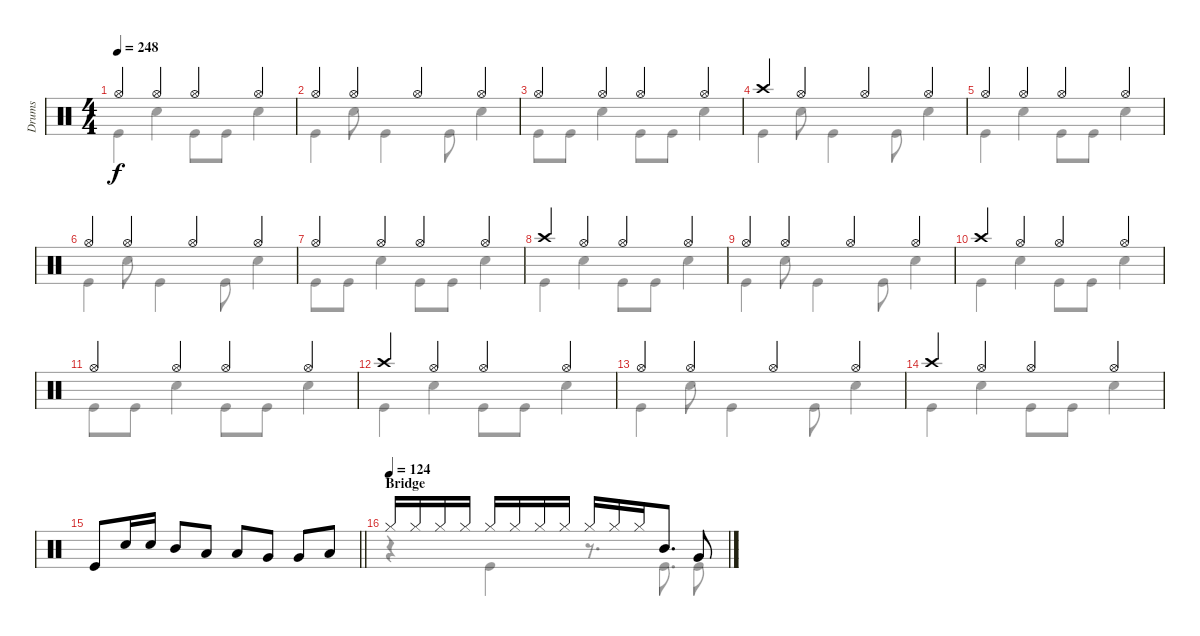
\track ("Drums" "Drums") {instrument percussion}
\staff {score}
\articulation defaults
\voice
\ts (4 4)
\tempo 248
\clef neutral
\ks c "Hi-Hat (open)".4{dy f} "Hi-Hat (open)".4 "Hi-Hat (open)".4 "Hi-Hat (open)".4
|
"Hi-Hat (open)".4 "Hi-Hat (open)".4 "Hi-Hat (open)".4 "Hi-Hat (open)".4 |
"Hi-Hat (open)".4 "Hi-Hat (open)".4 "Hi-Hat (open)".4 "Hi-Hat (open)".4 |
"Crash high (hit)".4 "Hi-Hat (open)".4 "Hi-Hat (open)".4 "Hi-Hat (open)".4 |
"Hi-Hat (open)".4 "Hi-Hat (open)".4 "Hi-Hat (open)".4 "Hi-Hat (open)".4 |
"Hi-Hat (open)".4 "Hi-Hat (open)".4 "Hi-Hat (open)".4 "Hi-Hat (open)".4 |
"Hi-Hat (open)".4 "Hi-Hat (open)".4 "Hi-Hat (open)".4 "Hi-Hat (open)".4 |
"Crash high (hit)".4 "Hi-Hat (open)".4 "Hi-Hat (open)".4 "Hi-Hat (open)".4 |
"Hi-Hat (open)".4 "Hi-Hat (open)".4 "Hi-Hat (open)".4 "Hi-Hat (open)".4 |
"Crash high (hit)".4 "Hi-Hat (open)".4 "Hi-Hat (open)".4 "Hi-Hat (open)".4 |
"Hi-Hat (open)".4 "Hi-Hat (open)".4 "Hi-Hat (open)".4 "Hi-Hat (open)".4 |
"Crash high (hit)".4 "Hi-Hat (open)".4 "Hi-Hat (open)".4 "Hi-Hat (open)".4 |
"Hi-Hat (open)".4 "Hi-Hat (open)".4 "Hi-Hat (open)".4 "Hi-Hat (open)".4 |
"Crash high (hit)".4 "Hi-Hat (open)".4 "Hi-Hat (open)".4 "Hi-Hat (open)".4 |
\barLineRight lightlight "Kick (hit)".8 "Electric Snare (hit)".16 "Electric Snare (hit)".16 "Mid Tom (hit)".8 "Low Tom (hit)".8 "Low Tom (hit)".8 "Very Low Tom (hit)".8 "Very Low Tom (hit)".8 "Low Floor Tom (hit)".8
|
\section ("" "Bridge")
\tempo (124)
"Hi-Hat (closed)".16 "Hi-Hat (closed)".16 "Hi-Hat (closed)".16 "Hi-Hat (closed)".16 "Hi-Hat (closed)".16 "Hi-Hat (closed)".16 "Hi-Hat (closed)".16 "Hi-Hat (closed)".16 "Hi-Hat (closed)".16 "Hi-Hat (closed)".16 "Hi-Hat (closed)".16 "Mid Tom (hit)".8{d} "Very Low Tom (hit)".8
\voice
\clef neutral
\ottava regular
\simile none
\ks c "Kick (hit)".4{dy f} "Electric Snare (hit)".4 "Kick (hit)".8 "Kick (hit)".8 "Electric Snare (hit)".4
|
"Kick (hit)".4 "Electric Snare (hit)".8 "Kick (hit)".4 "Kick (hit)".8 "Electric Snare (hit)".4 |
"Kick (hit)".8 "Kick (hit)".8 "Electric Snare (hit)".4 "Kick (hit)".8 "Kick (hit)".8 "Electric Snare (hit)".4 |
"Kick (hit)".4 "Electric Snare (hit)".8 "Kick (hit)".4 "Kick (hit)".8 "Electric Snare (hit)".4 |
"Kick (hit)".4 "Electric Snare (hit)".4 "Kick (hit)".8 "Kick (hit)".8 "Electric Snare (hit)".4 |
"Kick (hit)".4 "Electric Snare (hit)".8 "Kick (hit)".4 "Kick (hit)".8 "Electric Snare (hit)".4 |
"Kick (hit)".8 "Kick (hit)".8 "Electric Snare (hit)".4 "Kick (hit)".8 "Kick (hit)".8 "Electric Snare (hit)".4 |
"Kick (hit)".4 "Electric Snare (hit)".4 "Kick (hit)".8 "Kick (hit)".8 "Electric Snare (hit)".4 |
"Kick (hit)".4 "Electric Snare (hit)".8 "Kick (hit)".4 "Kick (hit)".8 "Electric Snare (hit)".4 |
"Kick (hit)".4 "Electric Snare (hit)".4 "Kick (hit)".8 "Kick (hit)".8 "Electric Snare (hit)".4 |
"Kick (hit)".8 "Kick (hit)".8 "Electric Snare (hit)".4 "Kick (hit)".8 "Kick (hit)".8 "Electric Snare (hit)".4 |
"Kick (hit)".4 "Electric Snare (hit)".4 "Kick (hit)".8 "Kick (hit)".8 "Electric Snare (hit)".4 |
"Kick (hit)".4 "Electric Snare (hit)".8 "Kick (hit)".4 "Kick (hit)".8 "Electric Snare (hit)".4 |
"Kick (hit)".4 "Electric Snare (hit)".4 "Kick (hit)".8 "Kick (hit)".8 "Electric Snare (hit)".4 |
\barLineRight lightlight
|
r.4 "Kick (hit)".4 r.8{d} "Kick (hit)".8{d} "Kick (hit)".8
